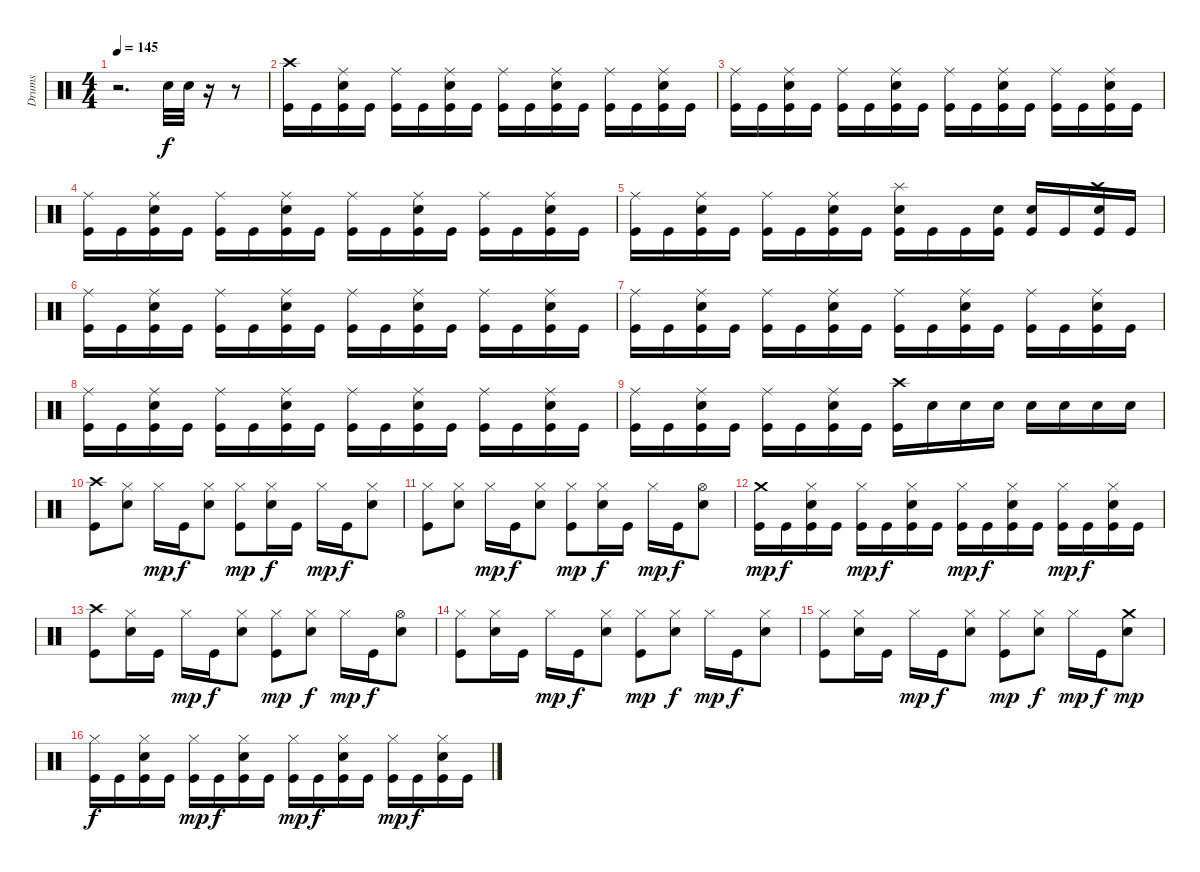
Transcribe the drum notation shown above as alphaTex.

\track ("Drums" "Drums") {instrument percussion}
\staff {score}
\articulation defaults
\ts (4 4)
\tempo 145
\clef neutral
\ks c
r.2{d dy f} "Snare (hit) 2".32 "Snare (hit) 2".32 r.16 r.8 |
("Crash high (hit)" "Kick (hit)").16 "Kick (hit)".16 ("Ride (middle)" "Snare (hit) 2" "Kick (hit)").16 "Kick (hit)".16 ("Ride (middle)" "Kick (hit)").16 "Kick (hit)".16 ("Ride (middle)" "Snare (hit) 2" "Kick (hit)").16 "Kick (hit)".16 ("Ride (middle)" "Kick (hit)").16 "Kick (hit)".16 ("Ride (middle)" "Snare (hit) 2" "Kick (hit)").16 "Kick (hit)".16 ("Ride (middle)" "Kick (hit)").16 "Kick (hit)".16 ("Ride (middle)" "Snare (hit) 2" "Kick (hit)").16 "Kick (hit)".16 |
("Ride (middle)" "Kick (hit)").16 "Kick (hit)".16 ("Ride (middle)" "Snare (hit) 2" "Kick (hit)").16 "Kick (hit)".16 ("Ride (middle)" "Kick (hit)").16 "Kick (hit)".16 ("Ride (middle)" "Snare (hit) 2" "Kick (hit)").16 "Kick (hit)".16 ("Ride (middle)" "Kick (hit)").16 "Kick (hit)".16 ("Ride (middle)" "Snare (hit) 2" "Kick (hit)").16 "Kick (hit)".16 ("Ride (middle)" "Kick (hit)").16 "Kick (hit)".16 ("Ride (middle)" "Snare (hit) 2" "Kick (hit)").16 "Kick (hit)".16 |
("Ride (middle)" "Kick (hit)").16 "Kick (hit)".16 ("Ride (middle)" "Snare (hit) 2" "Kick (hit)").16 "Kick (hit)".16 ("Ride (middle)" "Kick (hit)").16 "Kick (hit)".16 ("Ride (middle)" "Snare (hit) 2" "Kick (hit)").16 "Kick (hit)".16 ("Ride (middle)" "Kick (hit)").16 "Kick (hit)".16 ("Ride (middle)" "Snare (hit) 2" "Kick (hit)").16 "Kick (hit)".16 ("Ride (middle)" "Kick (hit)").16 "Kick (hit)".16 ("Ride (middle)" "Snare (hit) 2" "Kick (hit)").16 "Kick (hit)".16 |
("Ride (middle)" "Kick (hit)").16 "Kick (hit)".16 ("Ride (middle)" "Snare (hit) 2" "Kick (hit)").16 "Kick (hit)".16 ("Ride (middle)" "Kick (hit)").16 "Kick (hit)".16 ("Ride (middle)" "Snare (hit) 2" "Kick (hit)").16 "Kick (hit)".16 ("Splash (hit)" "Snare (hit) 2" "Kick (hit)").16 "Kick (hit)".16 "Kick (hit)".16 ("Snare (hit) 2" "Kick (hit)").16 ("Snare (hit) 2" "Kick (hit)").16 "Kick (hit)".16 ("Crash high (hit)" "Snare (hit) 2" "Kick (hit)").16 "Kick (hit)".16 |
("Ride (middle)" "Kick (hit)").16 "Kick (hit)".16 ("Ride (middle)" "Snare (hit) 2" "Kick (hit)").16 "Kick (hit)".16 ("Ride (middle)" "Kick (hit)").16 "Kick (hit)".16 ("Ride (middle)" "Snare (hit) 2" "Kick (hit)").16 "Kick (hit)".16 ("Ride (middle)" "Kick (hit)").16 "Kick (hit)".16 ("Ride (middle)" "Snare (hit) 2" "Kick (hit)").16 "Kick (hit)".16 ("Ride (middle)" "Kick (hit)").16 "Kick (hit)".16 ("Ride (middle)" "Snare (hit) 2" "Kick (hit)").16 "Kick (hit)".16 |
("Ride (middle)" "Kick (hit)").16 "Kick (hit)".16 ("Ride (middle)" "Snare (hit) 2" "Kick (hit)").16 "Kick (hit)".16 ("Ride (middle)" "Kick (hit)").16 "Kick (hit)".16 ("Ride (middle)" "Snare (hit) 2" "Kick (hit)").16 "Kick (hit)".16 ("Ride (middle)" "Kick (hit)").16 "Kick (hit)".16 ("Ride (middle)" "Snare (hit) 2" "Kick (hit)").16 "Kick (hit)".16 ("Ride (middle)" "Kick (hit)").16 "Kick (hit)".16 ("Ride (middle)" "Snare (hit) 2" "Kick (hit)").16 "Kick (hit)".16 |
("Ride (middle)" "Kick (hit)").16 "Kick (hit)".16 ("Ride (middle)" "Snare (hit) 2" "Kick (hit)").16 "Kick (hit)".16 ("Ride (middle)" "Kick (hit)").16 "Kick (hit)".16 ("Ride (middle)" "Snare (hit) 2" "Kick (hit)").16 "Kick (hit)".16 ("Ride (middle)" "Kick (hit)").16 "Kick (hit)".16 ("Ride (middle)" "Snare (hit) 2" "Kick (hit)").16 "Kick (hit)".16 ("Ride (middle)" "Kick (hit)").16 "Kick (hit)".16 ("Ride (middle)" "Snare (hit) 2" "Kick (hit)").16 "Kick (hit)".16 |
("Ride (middle)" "Kick (hit)").16 "Kick (hit)".16 ("Ride (middle)" "Snare (hit) 2" "Kick (hit)").16 "Kick (hit)".16 ("Ride (middle)" "Kick (hit)").16 "Kick (hit)".16 ("Ride (middle)" "Snare (hit) 2" "Kick (hit)").16 "Kick (hit)".16 ("Crash high (hit)" "Kick (hit)").16 "Snare (hit) 2".16 "Snare (hit) 2".16 "Snare (hit) 2".16 "Snare (hit) 2".16 "Snare (hit) 2".16 "Snare (hit) 2".16 "Snare (hit) 2".16 |
("Crash high (hit)" "Kick (hit)").8 ("Hi-Hat (closed)" "Snare (hit) 2").8 "Hi-Hat (closed)".16{dy mp} "Kick (hit)".16{dy f} ("Hi-Hat (closed)" "Snare (hit) 2").8 ("Hi-Hat (closed)" "Kick (hit)").8{dy mp} ("Hi-Hat (closed)" "Snare (hit) 2").16{dy f} "Kick (hit)".16 "Hi-Hat (closed)".16{dy mp} "Kick (hit)".16{dy f} ("Hi-Hat (closed)" "Snare (hit) 2").8 |
("Hi-Hat (closed)" "Kick (hit)").8 ("Hi-Hat (closed)" "Snare (hit) 2").8 "Hi-Hat (closed)".16{dy mp} "Kick (hit)".16{dy f} ("Hi-Hat (closed)" "Snare (hit) 2").8 ("Hi-Hat (closed)" "Kick (hit)").8{dy mp} ("Hi-Hat (closed)" "Snare (hit) 2").16{dy f} "Kick (hit)".16 "Hi-Hat (closed)".16{dy mp} "Kick (hit)".16{dy f} ("Hi-Hat (open)" "Snare (hit) 2").8 |
("Crash medium (hit)" "Kick (hit)").16{dy mp} "Kick (hit)".16{dy f} ("Hi-Hat (closed)" "Snare (hit) 2" "Kick (hit)").16 "Kick (hit)".16 ("Hi-Hat (closed)" "Kick (hit)").16{dy mp} "Kick (hit)".16{dy f} ("Hi-Hat (closed)" "Snare (hit) 2" "Kick (hit)").16 "Kick (hit)".16 ("Hi-Hat (closed)" "Kick (hit)").16{dy mp} "Kick (hit)".16{dy f} ("Hi-Hat (closed)" "Snare (hit) 2" "Kick (hit)").16 "Kick (hit)".16 ("Hi-Hat (closed)" "Kick (hit)").16{dy mp} "Kick (hit)".16{dy f} ("Hi-Hat (closed)" "Snare (hit) 2" "Kick (hit)").16 "Kick (hit)".16 |
("Crash high (hit)" "Kick (hit)").8 ("Hi-Hat (closed)" "Snare (hit) 2").16 "Kick (hit)".16 "Hi-Hat (closed)".16{dy mp} "Kick (hit)".16{dy f} ("Hi-Hat (closed)" "Snare (hit) 2").8 ("Hi-Hat (closed)" "Kick (hit)").8{dy mp} ("Hi-Hat (closed)" "Snare (hit) 2").8{dy f} "Hi-Hat (closed)".16{dy mp} "Kick (hit)".16{dy f} ("Hi-Hat (open)" "Snare (hit) 2").8 |
("Hi-Hat (closed)" "Kick (hit)").8 ("Hi-Hat (closed)" "Snare (hit) 2").16 "Kick (hit)".16 "Hi-Hat (closed)".16{dy mp} "Kick (hit)".16{dy f} ("Hi-Hat (closed)" "Snare (hit) 2").8 ("Hi-Hat (closed)" "Kick (hit)").8{dy mp} ("Hi-Hat (closed)" "Snare (hit) 2").8{dy f} "Hi-Hat (closed)".16{dy mp} "Kick (hit)".16{dy f} ("Hi-Hat (closed)" "Snare (hit) 2").8 |
("Hi-Hat (closed)" "Kick (hit)").8 ("Hi-Hat (closed)" "Snare (hit) 2").16 "Kick (hit)".16 "Hi-Hat (closed)".16{dy mp} "Kick (hit)".16{dy f} ("Hi-Hat (closed)" "Snare (hit) 2").8 ("Hi-Hat (closed)" "Kick (hit)").8{dy mp} ("Hi-Hat (closed)" "Snare (hit) 2").8{dy f} "Hi-Hat (closed)".16{dy mp} "Kick (hit)".16{dy f} ("Crash medium (hit)" "Snare (hit) 2").8{dy mp} |
("Hi-Hat (closed)" "Kick (hit)").16{dy f} "Kick (hit)".16 ("Hi-Hat (closed)" "Snare (hit) 2" "Kick (hit)").16 "Kick (hit)".16 ("Hi-Hat (closed)" "Kick (hit)").16{dy mp} "Kick (hit)".16{dy f} ("Hi-Hat (closed)" "Snare (hit) 2" "Kick (hit)").16 "Kick (hit)".16 ("Hi-Hat (closed)" "Kick (hit)").16{dy mp} "Kick (hit)".16{dy f} ("Hi-Hat (closed)" "Snare (hit) 2" "Kick (hit)").16 "Kick (hit)".16 ("Hi-Hat (closed)" "Kick (hit)").16{dy mp} "Kick (hit)".16{dy f} ("Hi-Hat (closed)" "Snare (hit) 2" "Kick (hit)").16 "Kick (hit)".16
